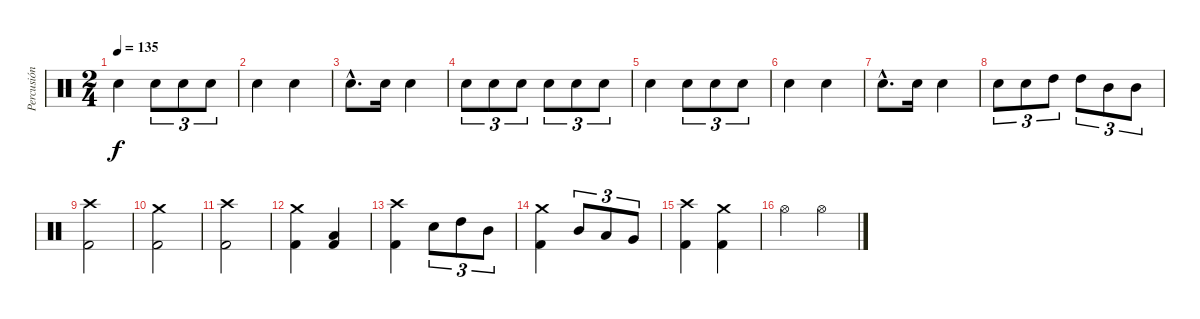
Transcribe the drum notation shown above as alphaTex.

\track ("Percusión" "Percusión") {instrument percussion}
\staff {score}
\articulation defaults
\ts (2 4)
\tempo 135
\clef neutral
\ks c "Snare (hit) 2".4{dy f} "Snare (hit) 2".8{tu (3 2)} "Snare (hit) 2".8{tu (3 2)} "Snare (hit) 2".8{tu (3 2)}
|
"Snare (hit) 2".4 "Snare (hit) 2".4 |
"Snare (hit) 2"{hac}.8{d} "Snare (hit) 2".16 "Snare (hit) 2".4 |
"Snare (hit) 2".8{tu (3 2)} "Snare (hit) 2".8{tu (3 2)} "Snare (hit) 2".8{tu (3 2)} "Snare (hit) 2".8{tu (3 2)} "Snare (hit) 2".8{tu (3 2)} "Snare (hit) 2".8{tu (3 2)} |
"Snare (hit) 2".4 "Snare (hit) 2".8{tu (3 2)} "Snare (hit) 2".8{tu (3 2)} "Snare (hit) 2".8{tu (3 2)} |
"Snare (hit) 2".4 "Snare (hit) 2".4 |
"Snare (hit) 2"{hac}.8{d} "Snare (hit) 2".16 "Snare (hit) 2".4 |
"Snare (hit) 2".8{tu (3 2)} "Snare (hit) 2".8{tu (3 2)} "High Tom (hit)".8{tu (3 2)} "High Tom (hit)".8{tu (3 2)} "Mid Tom (hit)".8{tu (3 2)} "Mid Tom (hit)".8{tu (3 2)} |
("Crash high (hit)" "Kick (hit) 2").2 |
("Crash medium (hit)" "Kick (hit) 2").2 |
("Crash high (hit)" "Kick (hit) 2").2 |
("Crash medium (hit)" "Kick (hit) 2").4 ("Low Floor Tom (hit)" "Kick (hit) 2").4 |
("Crash high (hit)" "Kick (hit) 2").4 "Snare (hit) 2".8{tu (3 2)} "High Tom (hit)".8{tu (3 2)} "Mid Tom (hit)".8{tu (3 2)} |
("Crash medium (hit)" "Kick (hit) 2").4 "Mid Tom (hit)".8{tu (3 2)} "Low Tom (hit)".8{tu (3 2)} "Very Low Tom (hit)".8{tu (3 2)} |
("Crash high (hit)" "Kick (hit) 2").4 ("Crash medium (hit)" "Kick (hit) 2").4 |
"Hi-Hat (open)".4 "Hi-Hat (open)".4
